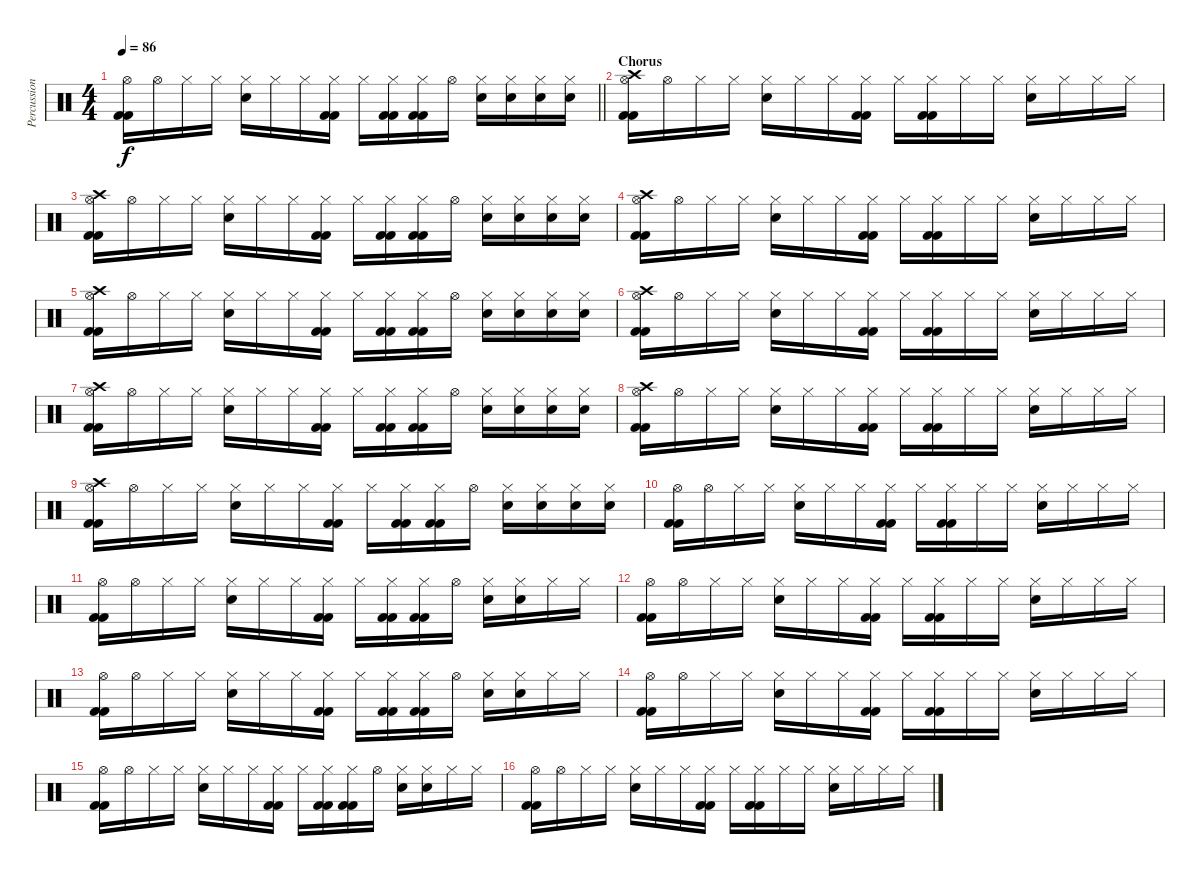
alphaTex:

\track ("Percussion" "Percussion") {instrument percussion}
\staff {score}
\articulation defaults
\ts (4 4)
\tempo 86
\clef neutral
\barLineRight lightlight
\ks c
("Hi-Hat (open)" "Kick (hit) 2" "Kick (hit) 2").16{dy f} "Hi-Hat (open)".16 "Hi-Hat (closed)".16 "Hi-Hat (closed)".16 ("Hi-Hat (closed)" "Electric Snare (hit)").16 "Hi-Hat (closed)".16 "Hi-Hat (closed)".16 ("Hi-Hat (closed)" "Kick (hit) 2" "Kick (hit) 2").16 "Hi-Hat (closed)".16 ("Hi-Hat (closed)" "Kick (hit) 2" "Kick (hit) 2").16 ("Hi-Hat (closed)" "Kick (hit) 2" "Kick (hit) 2").16 "Hi-Hat (open)".16 ("Hi-Hat (closed)" "Electric Snare (hit)").16 ("Hi-Hat (closed)" "Electric Snare (hit)").16 ("Hi-Hat (closed)" "Electric Snare (hit)").16 ("Hi-Hat (closed)" "Electric Snare (hit)").16 |
\section ("" "Chorus")
("Hi-Hat (open)" "Crash high (hit)" "Kick (hit) 2" "Kick (hit) 2").16 "Hi-Hat (open)".16 "Hi-Hat (closed)".16 "Hi-Hat (closed)".16 ("Hi-Hat (closed)" "Electric Snare (hit)").16 "Hi-Hat (closed)".16 "Hi-Hat (closed)".16 ("Hi-Hat (closed)" "Kick (hit) 2" "Kick (hit) 2").16 "Hi-Hat (closed)".16 ("Hi-Hat (closed)" "Kick (hit) 2" "Kick (hit) 2").16 "Hi-Hat (closed)".16 "Hi-Hat (closed)".16 ("Hi-Hat (closed)" "Electric Snare (hit)").16 "Hi-Hat (closed)".16 "Hi-Hat (closed)".16 "Hi-Hat (closed)".16 |
("Hi-Hat (open)" "Crash high (hit)" "Kick (hit) 2" "Kick (hit) 2").16 "Hi-Hat (open)".16 "Hi-Hat (closed)".16 "Hi-Hat (closed)".16 ("Hi-Hat (closed)" "Electric Snare (hit)").16 "Hi-Hat (closed)".16 "Hi-Hat (closed)".16 ("Hi-Hat (closed)" "Kick (hit) 2" "Kick (hit) 2").16 "Hi-Hat (closed)".16 ("Hi-Hat (closed)" "Kick (hit) 2" "Kick (hit) 2").16 ("Hi-Hat (closed)" "Kick (hit) 2" "Kick (hit) 2").16 "Hi-Hat (open)".16 ("Hi-Hat (closed)" "Electric Snare (hit)").16 ("Hi-Hat (closed)" "Electric Snare (hit)").16 ("Hi-Hat (closed)" "Electric Snare (hit)").16 ("Hi-Hat (closed)" "Electric Snare (hit)").16 |
("Hi-Hat (open)" "Crash high (hit)" "Kick (hit) 2" "Kick (hit) 2").16 "Hi-Hat (open)".16 "Hi-Hat (closed)".16 "Hi-Hat (closed)".16 ("Hi-Hat (closed)" "Electric Snare (hit)").16 "Hi-Hat (closed)".16 "Hi-Hat (closed)".16 ("Hi-Hat (closed)" "Kick (hit) 2" "Kick (hit) 2").16 "Hi-Hat (closed)".16 ("Hi-Hat (closed)" "Kick (hit) 2" "Kick (hit) 2").16 "Hi-Hat (closed)".16 "Hi-Hat (closed)".16 ("Hi-Hat (closed)" "Electric Snare (hit)").16 "Hi-Hat (closed)".16 "Hi-Hat (closed)".16 "Hi-Hat (closed)".16 |
("Hi-Hat (open)" "Crash high (hit)" "Kick (hit) 2" "Kick (hit) 2").16 "Hi-Hat (open)".16 "Hi-Hat (closed)".16 "Hi-Hat (closed)".16 ("Hi-Hat (closed)" "Electric Snare (hit)").16 "Hi-Hat (closed)".16 "Hi-Hat (closed)".16 ("Hi-Hat (closed)" "Kick (hit) 2" "Kick (hit) 2").16 "Hi-Hat (closed)".16 ("Hi-Hat (closed)" "Kick (hit) 2" "Kick (hit) 2").16 ("Hi-Hat (closed)" "Kick (hit) 2" "Kick (hit) 2").16 "Hi-Hat (open)".16 ("Hi-Hat (closed)" "Electric Snare (hit)").16 ("Hi-Hat (closed)" "Electric Snare (hit)").16 ("Hi-Hat (closed)" "Electric Snare (hit)").16 ("Hi-Hat (closed)" "Electric Snare (hit)").16 |
("Hi-Hat (open)" "Crash high (hit)" "Kick (hit) 2" "Kick (hit) 2").16 "Hi-Hat (open)".16 "Hi-Hat (closed)".16 "Hi-Hat (closed)".16 ("Hi-Hat (closed)" "Electric Snare (hit)").16 "Hi-Hat (closed)".16 "Hi-Hat (closed)".16 ("Hi-Hat (closed)" "Kick (hit) 2" "Kick (hit) 2").16 "Hi-Hat (closed)".16 ("Hi-Hat (closed)" "Kick (hit) 2" "Kick (hit) 2").16 "Hi-Hat (closed)".16 "Hi-Hat (closed)".16 ("Hi-Hat (closed)" "Electric Snare (hit)").16 "Hi-Hat (closed)".16 "Hi-Hat (closed)".16 "Hi-Hat (closed)".16 |
("Hi-Hat (open)" "Crash high (hit)" "Kick (hit) 2" "Kick (hit) 2").16 "Hi-Hat (open)".16 "Hi-Hat (closed)".16 "Hi-Hat (closed)".16 ("Hi-Hat (closed)" "Electric Snare (hit)").16 "Hi-Hat (closed)".16 "Hi-Hat (closed)".16 ("Hi-Hat (closed)" "Kick (hit) 2" "Kick (hit) 2").16 "Hi-Hat (closed)".16 ("Hi-Hat (closed)" "Kick (hit) 2" "Kick (hit) 2").16 ("Hi-Hat (closed)" "Kick (hit) 2" "Kick (hit) 2").16 "Hi-Hat (open)".16 ("Hi-Hat (closed)" "Electric Snare (hit)").16 ("Hi-Hat (closed)" "Electric Snare (hit)").16 ("Hi-Hat (closed)" "Electric Snare (hit)").16 ("Hi-Hat (closed)" "Electric Snare (hit)").16 |
("Hi-Hat (open)" "Crash high (hit)" "Kick (hit) 2" "Kick (hit) 2").16 "Hi-Hat (open)".16 "Hi-Hat (closed)".16 "Hi-Hat (closed)".16 ("Hi-Hat (closed)" "Electric Snare (hit)").16 "Hi-Hat (closed)".16 "Hi-Hat (closed)".16 ("Hi-Hat (closed)" "Kick (hit) 2" "Kick (hit) 2").16 "Hi-Hat (closed)".16 ("Hi-Hat (closed)" "Kick (hit) 2" "Kick (hit) 2").16 "Hi-Hat (closed)".16 "Hi-Hat (closed)".16 ("Hi-Hat (closed)" "Electric Snare (hit)").16 "Hi-Hat (closed)".16 "Hi-Hat (closed)".16 "Hi-Hat (closed)".16 |
("Hi-Hat (open)" "Crash high (hit)" "Kick (hit) 2" "Kick (hit) 2").16 "Hi-Hat (open)".16 "Hi-Hat (closed)".16 "Hi-Hat (closed)".16 ("Hi-Hat (closed)" "Electric Snare (hit)").16 "Hi-Hat (closed)".16 "Hi-Hat (closed)".16 ("Hi-Hat (closed)" "Kick (hit) 2" "Kick (hit) 2").16 "Hi-Hat (closed)".16 ("Hi-Hat (closed)" "Kick (hit) 2" "Kick (hit) 2").16 ("Hi-Hat (closed)" "Kick (hit) 2" "Kick (hit) 2").16 "Hi-Hat (open)".16 ("Hi-Hat (closed)" "Electric Snare (hit)").16 ("Hi-Hat (closed)" "Electric Snare (hit)").16 ("Hi-Hat (closed)" "Electric Snare (hit)").16 ("Hi-Hat (closed)" "Electric Snare (hit)").16 |
("Hi-Hat (open)" "Kick (hit) 2" "Kick (hit) 2").16 "Hi-Hat (open)".16 "Hi-Hat (closed)".16 "Hi-Hat (closed)".16 ("Hi-Hat (closed)" "Electric Snare (hit)").16 "Hi-Hat (closed)".16 "Hi-Hat (closed)".16 ("Hi-Hat (closed)" "Kick (hit) 2" "Kick (hit) 2").16 "Hi-Hat (closed)".16 ("Hi-Hat (closed)" "Kick (hit) 2" "Kick (hit) 2").16 "Hi-Hat (closed)".16 "Hi-Hat (closed)".16 ("Hi-Hat (closed)" "Electric Snare (hit)").16 "Hi-Hat (closed)".16 "Hi-Hat (closed)".16 "Hi-Hat (closed)".16 |
("Hi-Hat (open)" "Kick (hit) 2" "Kick (hit) 2").16 "Hi-Hat (open)".16 "Hi-Hat (closed)".16 "Hi-Hat (closed)".16 ("Hi-Hat (closed)" "Electric Snare (hit)").16 "Hi-Hat (closed)".16 "Hi-Hat (closed)".16 ("Hi-Hat (closed)" "Kick (hit) 2" "Kick (hit) 2").16 "Hi-Hat (closed)".16 ("Hi-Hat (closed)" "Kick (hit) 2" "Kick (hit) 2").16 ("Hi-Hat (closed)" "Kick (hit) 2" "Kick (hit) 2").16 "Hi-Hat (open)".16 ("Hi-Hat (closed)" "Electric Snare (hit)").16 ("Hi-Hat (closed)" "Electric Snare (hit)").16 "Hi-Hat (closed)".16 "Hi-Hat (closed)".16 |
("Hi-Hat (open)" "Kick (hit) 2" "Kick (hit) 2").16 "Hi-Hat (open)".16 "Hi-Hat (closed)".16 "Hi-Hat (closed)".16 ("Hi-Hat (closed)" "Electric Snare (hit)").16 "Hi-Hat (closed)".16 "Hi-Hat (closed)".16 ("Hi-Hat (closed)" "Kick (hit) 2" "Kick (hit) 2").16 "Hi-Hat (closed)".16 ("Hi-Hat (closed)" "Kick (hit) 2" "Kick (hit) 2").16 "Hi-Hat (closed)".16 "Hi-Hat (closed)".16 ("Hi-Hat (closed)" "Electric Snare (hit)").16 "Hi-Hat (closed)".16 "Hi-Hat (closed)".16 "Hi-Hat (closed)".16 |
("Hi-Hat (open)" "Kick (hit) 2" "Kick (hit) 2").16 "Hi-Hat (open)".16 "Hi-Hat (closed)".16 "Hi-Hat (closed)".16 ("Hi-Hat (closed)" "Electric Snare (hit)").16 "Hi-Hat (closed)".16 "Hi-Hat (closed)".16 ("Hi-Hat (closed)" "Kick (hit) 2" "Kick (hit) 2").16 "Hi-Hat (closed)".16 ("Hi-Hat (closed)" "Kick (hit) 2" "Kick (hit) 2").16 ("Hi-Hat (closed)" "Kick (hit) 2" "Kick (hit) 2").16 "Hi-Hat (open)".16 ("Hi-Hat (closed)" "Electric Snare (hit)").16 ("Hi-Hat (closed)" "Electric Snare (hit)").16 "Hi-Hat (closed)".16 "Hi-Hat (closed)".16 |
("Hi-Hat (open)" "Kick (hit) 2" "Kick (hit) 2").16 "Hi-Hat (open)".16 "Hi-Hat (closed)".16 "Hi-Hat (closed)".16 ("Hi-Hat (closed)" "Electric Snare (hit)").16 "Hi-Hat (closed)".16 "Hi-Hat (closed)".16 ("Hi-Hat (closed)" "Kick (hit) 2" "Kick (hit) 2").16 "Hi-Hat (closed)".16 ("Hi-Hat (closed)" "Kick (hit) 2" "Kick (hit) 2").16 "Hi-Hat (closed)".16 "Hi-Hat (closed)".16 ("Hi-Hat (closed)" "Electric Snare (hit)").16 "Hi-Hat (closed)".16 "Hi-Hat (closed)".16 "Hi-Hat (closed)".16 |
("Hi-Hat (open)" "Kick (hit) 2" "Kick (hit) 2").16 "Hi-Hat (open)".16 "Hi-Hat (closed)".16 "Hi-Hat (closed)".16 ("Hi-Hat (closed)" "Electric Snare (hit)").16 "Hi-Hat (closed)".16 "Hi-Hat (closed)".16 ("Hi-Hat (closed)" "Kick (hit) 2" "Kick (hit) 2").16 "Hi-Hat (closed)".16 ("Hi-Hat (closed)" "Kick (hit) 2" "Kick (hit) 2").16 ("Hi-Hat (closed)" "Kick (hit) 2" "Kick (hit) 2").16 "Hi-Hat (open)".16 ("Hi-Hat (closed)" "Electric Snare (hit)").16 ("Hi-Hat (closed)" "Electric Snare (hit)").16 "Hi-Hat (closed)".16 "Hi-Hat (closed)".16 |
("Hi-Hat (open)" "Kick (hit) 2" "Kick (hit) 2").16 "Hi-Hat (open)".16 "Hi-Hat (closed)".16 "Hi-Hat (closed)".16 ("Hi-Hat (closed)" "Electric Snare (hit)").16 "Hi-Hat (closed)".16 "Hi-Hat (closed)".16 ("Hi-Hat (closed)" "Kick (hit) 2" "Kick (hit) 2").16 "Hi-Hat (closed)".16 ("Hi-Hat (closed)" "Kick (hit) 2" "Kick (hit) 2").16 "Hi-Hat (closed)".16 "Hi-Hat (closed)".16 ("Hi-Hat (closed)" "Electric Snare (hit)").16 "Hi-Hat (closed)".16 "Hi-Hat (closed)".16 "Hi-Hat (closed)".16
